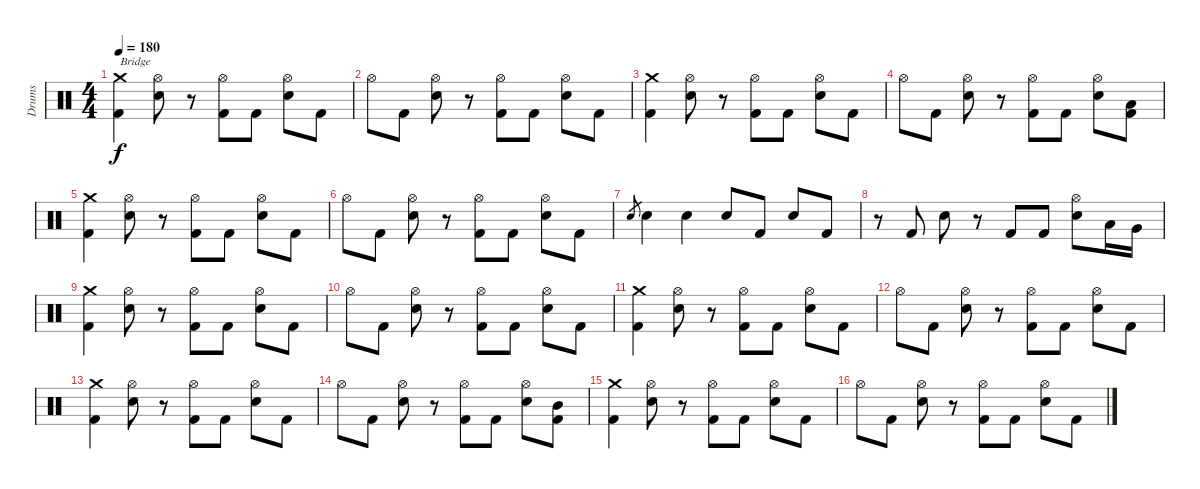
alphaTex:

\track ("Drums" "Drums") {instrument percussion}
\staff {score}
\articulation defaults
\ts (4 4)
\tempo 180
\clef neutral
\ks c
("Crash medium (hit)" "Kick (hit) 2").4{txt "Bridge" dy f} ("Hi-Hat (open)" "Electric Snare (hit)").8 r.8 ("Hi-Hat (open)" "Kick (hit) 2").8 "Kick (hit) 2".8 ("Hi-Hat (open)" "Electric Snare (hit)").8 "Kick (hit) 2".8 |
"Hi-Hat (open)".8 "Kick (hit) 2".8 ("Hi-Hat (open)" "Electric Snare (hit)").8 r.8 ("Hi-Hat (open)" "Kick (hit) 2").8 "Kick (hit) 2".8 ("Hi-Hat (open)" "Electric Snare (hit)").8 "Kick (hit) 2".8 |
("Crash medium (hit)" "Kick (hit) 2").4 ("Hi-Hat (open)" "Electric Snare (hit)").8 r.8 ("Hi-Hat (open)" "Kick (hit) 2").8 "Kick (hit) 2".8 ("Hi-Hat (open)" "Electric Snare (hit)").8 "Kick (hit) 2".8 |
"Hi-Hat (open)".8 "Kick (hit) 2".8 ("Hi-Hat (open)" "Electric Snare (hit)").8 r.8 ("Hi-Hat (open)" "Kick (hit) 2").8 "Kick (hit) 2".8 ("Hi-Hat (open)" "Electric Snare (hit)").8 ("Low Tom (hit)" "Kick (hit) 2").8 |
("Crash medium (hit)" "Kick (hit) 2").4 ("Hi-Hat (open)" "Electric Snare (hit)").8 r.8 ("Hi-Hat (open)" "Kick (hit) 2").8 "Kick (hit) 2".8 ("Hi-Hat (open)" "Electric Snare (hit)").8 "Kick (hit) 2".8 |
"Hi-Hat (open)".8 "Kick (hit) 2".8 ("Hi-Hat (open)" "Electric Snare (hit)").8 r.8 ("Hi-Hat (open)" "Kick (hit) 2").8 "Kick (hit) 2".8 ("Hi-Hat (open)" "Electric Snare (hit)").8 "Kick (hit) 2".8 |
"Electric Snare (hit)".8{gr} "Electric Snare (hit)".4 "Electric Snare (hit)".4 "Electric Snare (hit)".8 "Kick (hit) 2".8 "Electric Snare (hit)".8 "Kick (hit) 2".8 |
r.8 "Kick (hit) 2".8 "Electric Snare (hit)".8 r.8 "Kick (hit) 2".8 "Kick (hit) 2".8 ("Hi-Hat (open)" "Electric Snare (hit)").8 "Low Tom (hit)".16 "Very Low Tom (hit)".16 |
("Crash medium (hit)" "Kick (hit) 2").4 ("Hi-Hat (open)" "Electric Snare (hit)").8 r.8 ("Hi-Hat (open)" "Kick (hit) 2").8 "Kick (hit) 2".8 ("Hi-Hat (open)" "Electric Snare (hit)").8 "Kick (hit) 2".8 |
"Hi-Hat (open)".8 "Kick (hit) 2".8 ("Hi-Hat (open)" "Electric Snare (hit)").8 r.8 ("Hi-Hat (open)" "Kick (hit) 2").8 "Kick (hit) 2".8 ("Hi-Hat (open)" "Electric Snare (hit)").8 "Kick (hit) 2".8 |
("Crash medium (hit)" "Kick (hit) 2").4 ("Hi-Hat (open)" "Electric Snare (hit)").8 r.8 ("Hi-Hat (open)" "Kick (hit) 2").8 "Kick (hit) 2".8 ("Hi-Hat (open)" "Electric Snare (hit)").8 "Kick (hit) 2".8 |
"Hi-Hat (open)".8 "Kick (hit) 2".8 ("Hi-Hat (open)" "Electric Snare (hit)").8 r.8 ("Hi-Hat (open)" "Kick (hit) 2").8 "Kick (hit) 2".8 ("Hi-Hat (open)" "Electric Snare (hit)").8 "Kick (hit) 2".8 |
("Crash medium (hit)" "Kick (hit) 2").4 ("Hi-Hat (open)" "Electric Snare (hit)").8 r.8 ("Hi-Hat (open)" "Kick (hit) 2").8 "Kick (hit) 2".8 ("Hi-Hat (open)" "Electric Snare (hit)").8 "Kick (hit) 2".8 |
"Hi-Hat (open)".8 "Kick (hit) 2".8 ("Hi-Hat (open)" "Electric Snare (hit)").8 r.8 ("Hi-Hat (open)" "Kick (hit) 2").8 "Kick (hit) 2".8 ("Hi-Hat (open)" "Electric Snare (hit)").8 ("Mid Tom (hit)" "Kick (hit) 2").8 |
("Crash medium (hit)" "Kick (hit) 2").4 ("Hi-Hat (open)" "Electric Snare (hit)").8 r.8 ("Hi-Hat (open)" "Kick (hit) 2").8 "Kick (hit) 2".8 ("Hi-Hat (open)" "Electric Snare (hit)").8 "Kick (hit) 2".8 |
"Hi-Hat (open)".8 "Kick (hit) 2".8 ("Hi-Hat (open)" "Electric Snare (hit)").8 r.8 ("Hi-Hat (open)" "Kick (hit) 2").8 "Kick (hit) 2".8 ("Hi-Hat (open)" "Electric Snare (hit)").8 "Kick (hit) 2".8
